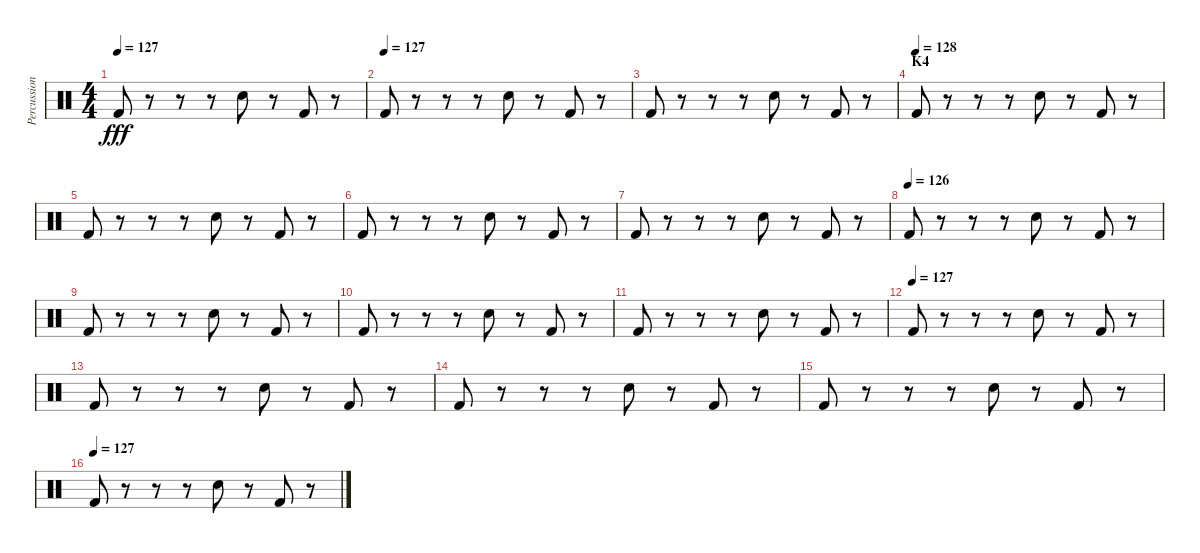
\track ("Percussion" "Percussion") {instrument percussion}
\staff {score}
\articulation defaults
\ts (4 4)
\tempo 127
\clef neutral
\ks c "Kick (hit) 2".8{dy fff}
r.8 r.8 r.8 "Electric Snare (hit)".8 r.8 "Kick (hit) 2".8 r.8 |
\tempo (127)
"Kick (hit) 2".8 r.8 r.8 r.8 "Electric Snare (hit)".8 r.8 "Kick (hit) 2".8 r.8 |
"Kick (hit) 2".8 r.8 r.8 r.8 "Electric Snare (hit)".8 r.8 "Kick (hit) 2".8 r.8 |
\section ("" "K4")
\tempo (128)
"Kick (hit) 2".8 r.8 r.8 r.8 "Electric Snare (hit)".8 r.8 "Kick (hit) 2".8 r.8 |
"Kick (hit) 2".8 r.8 r.8 r.8 "Electric Snare (hit)".8 r.8 "Kick (hit) 2".8 r.8 |
"Kick (hit) 2".8 r.8 r.8 r.8 "Electric Snare (hit)".8 r.8 "Kick (hit) 2".8 r.8 |
"Kick (hit) 2".8 r.8 r.8 r.8 "Electric Snare (hit)".8 r.8 "Kick (hit) 2".8 r.8 |
\tempo (126)
"Kick (hit) 2".8 r.8 r.8 r.8 "Electric Snare (hit)".8 r.8 "Kick (hit) 2".8 r.8 |
"Kick (hit) 2".8 r.8 r.8 r.8 "Electric Snare (hit)".8 r.8 "Kick (hit) 2".8 r.8 |
"Kick (hit) 2".8 r.8 r.8 r.8 "Electric Snare (hit)".8 r.8 "Kick (hit) 2".8 r.8 |
"Kick (hit) 2".8 r.8 r.8 r.8 "Electric Snare (hit)".8 r.8 "Kick (hit) 2".8 r.8 |
\tempo (127)
"Kick (hit) 2".8 r.8 r.8 r.8 "Electric Snare (hit)".8 r.8 "Kick (hit) 2".8 r.8 |
"Kick (hit) 2".8 r.8 r.8 r.8 "Electric Snare (hit)".8 r.8 "Kick (hit) 2".8 r.8 |
"Kick (hit) 2".8 r.8 r.8 r.8 "Electric Snare (hit)".8 r.8 "Kick (hit) 2".8 r.8 |
"Kick (hit) 2".8{volume 0} r.8 r.8 r.8 "Electric Snare (hit)".8 r.8 "Kick (hit) 2".8 r.8 |
\tempo (127)
"Kick (hit) 2".8 r.8 r.8 r.8 "Electric Snare (hit)".8 r.8 "Kick (hit) 2".8 r.8
